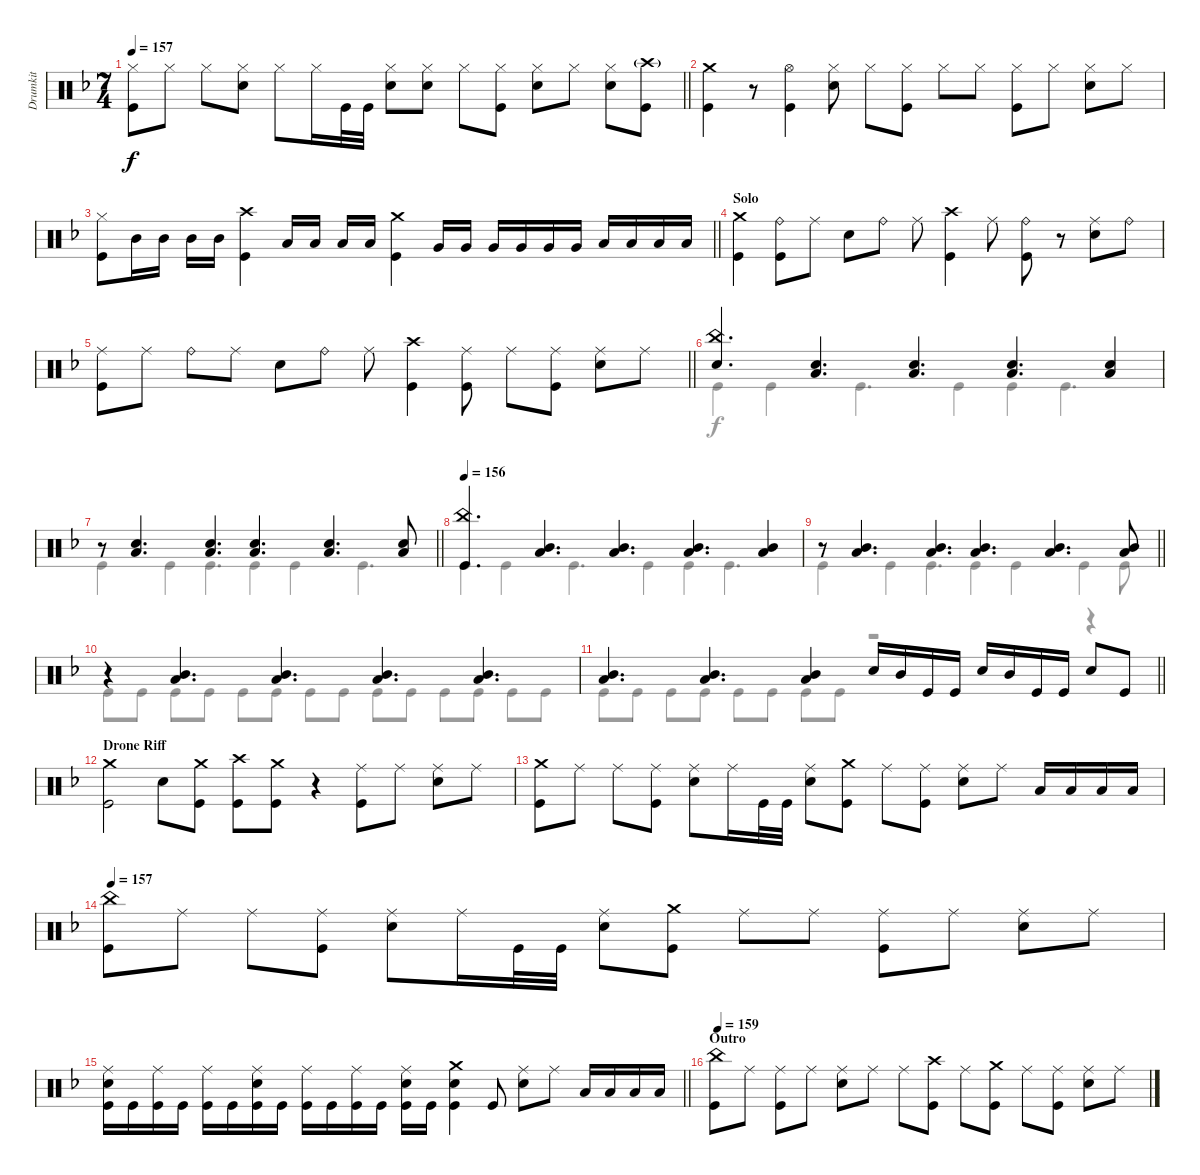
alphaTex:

\track ("Drumkit" "Drumkit") {instrument percussion}
\staff {score}
\articulation defaults
\voice
\ts (7 4)
\tempo 157
\clef neutral
\barLineRight lightlight
\ks dminor
("Hi-Hat (closed)" "Kick (hit)").8{dy f} "Hi-Hat (closed)".8 "Hi-Hat (closed)".8 ("Hi-Hat (closed)" "Snare (hit) 2").8 "Hi-Hat (closed)".8 "Hi-Hat (closed)".16 "Kick (hit)".32 "Kick (hit)".32 ("Snare (hit) 2" "Hi-Hat (closed)").8 ("Snare (hit) 2" "Hi-Hat (closed)").8 "Hi-Hat (closed)".8 ("Hi-Hat (closed)" "Kick (hit)").8 ("Hi-Hat (closed)" "Snare (hit) 2").8 "Hi-Hat (closed)".8 ("Hi-Hat (closed)" "Snare (hit) 2").8 ("Crash high (hit)"{g} "Kick (hit)").8 |
("Kick (hit)" "Crash medium (hit)").4 r.8 ("Hi-Hat (open)" "Kick (hit)").4 ("Hi-Hat (closed)" "Snare (hit) 2").8 "Hi-Hat (closed)".8 ("Hi-Hat (closed)" "Kick (hit)").8 "Hi-Hat (closed)".8 "Hi-Hat (closed)".8 ("Hi-Hat (closed)" "Kick (hit)").8 "Hi-Hat (closed)".8 ("Hi-Hat (closed)" "Snare (hit) 2").8 "Hi-Hat (closed)".8 |
\barLineRight lightlight
("Kick (hit)" "Hi-Hat (closed)").8 "Mid Tom (hit)".16 "Mid Tom (hit)".16 "Mid Tom (hit)".16 "Mid Tom (hit)".16 ("Kick (hit)" "Crash high (hit)").4 "Low Tom (hit)".16 "Low Tom (hit)".16 "Low Tom (hit)".16 "Low Tom (hit)".16 ("Crash medium (hit)" "Kick (hit)").4 "Very Low Tom (hit)".16 "Very Low Tom (hit)".16 "Very Low Tom (hit)".16 "Very Low Tom (hit)".16 "Very Low Tom (hit)".16 "Very Low Tom (hit)".16 "Low Floor Tom (hit)".16 "Low Floor Tom (hit)".16 "Low Floor Tom (hit)".16 "Low Floor Tom (hit)".16 |
\section ("" "Solo")
("Crash medium (hit)" "Kick (hit)").4 ("Ride (bell)" "Kick (hit)").8 "Ride (middle)".8 "Snare (hit) 2".8 "Ride (bell)".8 "Ride (middle)".8 ("Kick (hit)" "Crash high (hit)").4 "Ride (middle)".8 ("Ride (bell)" "Kick (hit)").8 r.8 ("Ride (middle)" "Snare (hit) 2").8 "Ride (bell)".8 |
\barLineRight lightlight
("Kick (hit)" "Ride (middle)").8 "Ride (middle)".8 "Ride (bell)".8 "Ride (middle)".8 "Snare (hit) 2".8 "Ride (bell)".8 "Ride (middle)".8 ("Kick (hit)" "Crash high (hit)").4 ("Ride (middle)" "Kick (hit)").8 "Ride (middle)".8 ("Kick (hit)" "Ride (middle)").8 ("Ride (middle)" "Snare (hit) 2").8 "Ride (middle)".8 |
("Snare (hit) 2" "China (hit)").4{d} ("Snare (hit) 2" "Low Floor Tom (hit)").4{d} ("Snare (hit) 2" "Low Floor Tom (hit)").4{d} ("Snare (hit) 2" "Low Floor Tom (hit)").4{d} ("Snare (hit) 2" "Low Floor Tom (hit)").4 |
\barLineRight lightlight
r.8 ("Snare (hit) 2" "Low Floor Tom (hit)").4{d} ("Snare (hit) 2" "Low Floor Tom (hit)").4{d} ("Snare (hit) 2" "Low Floor Tom (hit)").4{d} ("Snare (hit) 2" "Low Floor Tom (hit)").4{d} ("Snare (hit) 2" "Low Floor Tom (hit)").8 |
\section ("" "")
\tempo 156
("Kick (hit)" "China (hit)").4{d} ("Mid Tom (hit)" "Low Floor Tom (hit)").4{d} ("Mid Tom (hit)" "Low Floor Tom (hit)").4{d} ("Mid Tom (hit)" "Low Floor Tom (hit)").4{d} ("Mid Tom (hit)" "Low Floor Tom (hit)").4 |
\barLineRight lightlight
r.8 ("Mid Tom (hit)" "Low Floor Tom (hit)").4{d} ("Mid Tom (hit)" "Low Floor Tom (hit)").4{d} ("Mid Tom (hit)" "Low Floor Tom (hit)").4{d} ("Mid Tom (hit)" "Low Floor Tom (hit)").4{d} ("Mid Tom (hit)" "Low Floor Tom (hit)").8 |
r.4 ("Mid Tom (hit)" "Low Floor Tom (hit)").4{d} ("Mid Tom (hit)" "Low Floor Tom (hit)").4{d} ("Mid Tom (hit)" "Low Floor Tom (hit)").4{d} ("Mid Tom (hit)" "Low Floor Tom (hit)").4{d} |
\barLineRight lightlight
("Mid Tom (hit)" "Low Floor Tom (hit)").4{d} ("Mid Tom (hit)" "Low Floor Tom (hit)").4{d} ("Mid Tom (hit)" "Low Floor Tom (hit)").4 "Snare (hit) 2".16 "Mid Tom (hit)".16 "Kick (hit)".16 "Kick (hit)".16 "Snare (hit) 2".16 "Mid Tom (hit)".16 "Kick (hit)".16 "Kick (hit)".16 "Snare (hit) 2".8 "Kick (hit)".8 |
\section ("" "Drone Riff")
("Crash medium (hit)" "Kick (hit)").2 "Snare (hit) 2".8 ("Kick (hit)" "Crash medium (hit)").8 ("Kick (hit)" "Crash high (hit)").8 ("Kick (hit)" "Crash medium (hit)").8 r.4 ("Ride (middle)" "Kick (hit)").8 "Ride (middle)".8 ("Ride (middle)" "Snare (hit) 2").8 "Ride (middle)".8 |
("Crash medium (hit)" "Kick (hit)").8 "Ride (middle)".8 "Ride (middle)".8 ("Ride (middle)" "Kick (hit)").8 ("Ride (middle)" "Snare (hit) 2").8 "Ride (middle)".16 "Kick (hit)".32 "Kick (hit)".32 ("Snare (hit) 2" "Ride (middle)").8 ("Kick (hit)" "Crash medium (hit)").8 "Ride (middle)".8 ("Ride (middle)" "Kick (hit)").8 ("Ride (middle)" "Snare (hit) 2").8 "Ride (middle)".8 "Low Tom (hit)".16 "Low Tom (hit)".16 "Low Tom (hit)".16 "Low Tom (hit)".16 |
\tempo 157
("Kick (hit)" "China (hit)").8 "Ride (middle)".8 "Ride (middle)".8 ("Ride (middle)" "Kick (hit)").8 ("Ride (middle)" "Snare (hit) 2").8 "Ride (middle)".16 "Kick (hit)".32 "Kick (hit)".32 ("Ride (middle)" "Snare (hit) 2").8 ("Kick (hit)" "Crash medium (hit)").8 "Ride (middle)".8 "Ride (middle)".8 ("Ride (middle)" "Kick (hit)").8 "Ride (middle)".8 ("Ride (middle)" "Snare (hit) 2").8 "Ride (middle)".8 |
\barLineRight lightlight
("Snare (hit) 2" "Ride (middle)" "Kick (hit)").16 "Kick (hit)".16 ("Ride (middle)" "Kick (hit)").16 "Kick (hit)".16 ("Ride (middle)" "Kick (hit)").16 "Kick (hit)".16 ("Snare (hit) 2" "Ride (middle)" "Kick (hit)").16 "Kick (hit)".16 ("Ride (middle)" "Kick (hit)").16 "Kick (hit)".16 ("Ride (middle)" "Kick (hit)").16 "Kick (hit)".16 ("Snare (hit) 2" "Ride (middle)" "Kick (hit)").16 "Kick (hit)".16 ("Kick (hit)" "Crash medium (hit)" "Snare (hit) 2").4 "Kick (hit)".8 ("Snare (hit) 2" "Ride (middle)").8 "Ride (middle)".8 "Low Floor Tom (hit)".16 "Low Floor Tom (hit)".16 "Low Floor Tom (hit)".16 "Low Floor Tom (hit)".16 |
\section ("" "Outro")
\tempo 159
("Kick (hit)" "China (hit)").8 "Ride (middle)".8 ("Ride (middle)" "Kick (hit)").8 "Ride (middle)".8 ("Ride (middle)" "Snare (hit) 2").8 "Ride (middle)".8 "Ride (middle)".8 ("Kick (hit)" "Crash high (hit)").8 "Ride (middle)".8 ("Kick (hit)" "Crash medium (hit)").8 "Ride (middle)".8 ("Ride (middle)" "Kick (hit)").8 ("Ride (middle)" "Snare (hit) 2").8 "Ride (middle)".8
\voice
\clef neutral
\ottava regular
\simile none
\barLineRight lightlight
\ks dminor
|
|
\barLineRight lightlight
|
|
\barLineRight lightlight
|
"Kick (hit)".4 "Kick (hit)".4 "Kick (hit)".4{d} "Kick (hit)".4 "Kick (hit)".4 "Kick (hit)".4{d} |
\barLineRight lightlight "Kick (hit)".4 "Kick (hit)".4 "Kick (hit)".4{d} "Kick (hit)".4 "Kick (hit)".4 "Kick (hit)".4{d}
|
"Kick (hit)".4 "Kick (hit)".4 "Kick (hit)".4{d} "Kick (hit)".4 "Kick (hit)".4 "Kick (hit)".4{d} |
\barLineRight lightlight "Kick (hit)".4 "Kick (hit)".4 "Kick (hit)".4{d} "Kick (hit)".4 "Kick (hit)".4 "Kick (hit)".4 "Kick (hit)".8
|
"Kick (hit)".8 "Kick (hit)".8 "Kick (hit)".8 "Kick (hit)".8 "Kick (hit)".8 "Kick (hit)".8 "Kick (hit)".8 "Kick (hit)".8 "Kick (hit)".8 "Kick (hit)".8 "Kick (hit)".8 "Kick (hit)".8 "Kick (hit)".8 "Kick (hit)".8 |
\barLineRight lightlight "Kick (hit)".8 "Kick (hit)".8 "Kick (hit)".8 "Kick (hit)".8 "Kick (hit)".8 "Kick (hit)".8 "Kick (hit)".8 "Kick (hit)".8
r.2 r.4 |
|
|
|
\barLineRight lightlight
|
